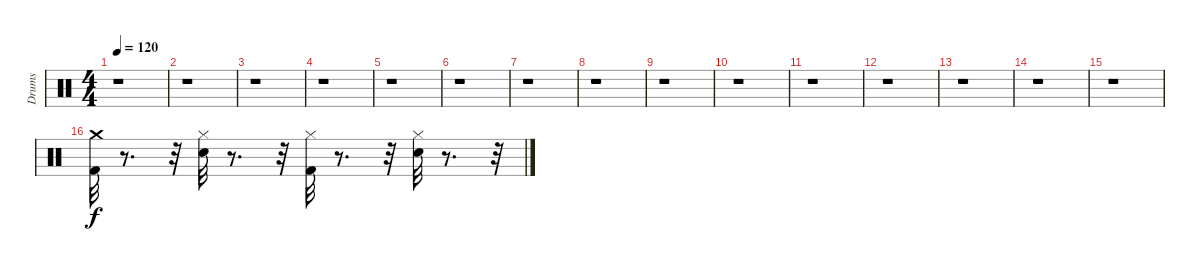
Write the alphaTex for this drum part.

\track ("Drums" "Drums") {instrument percussion}
\staff {score}
\articulation defaults
\ts (4 4)
\tempo 120
\clef neutral
\ks c
r.1{dy f} |
r.1 |
r.1 |
r.1 |
r.1 |
r.1 |
r.1 |
r.1 |
r.1 |
r.1 |
r.1 |
r.1 |
r.1 |
r.1 |
r.1 |
("Kick (hit) 2" "Crash medium (hit)").32 r.8{d} r.32 ("Snare (hit) 2" "Hi-Hat (closed)").32 r.8{d} r.32 ("Kick (hit) 2" "Hi-Hat (closed)").32 r.8{d} r.32 ("Snare (hit) 2" "Hi-Hat (closed)").32 r.8{d} r.32
